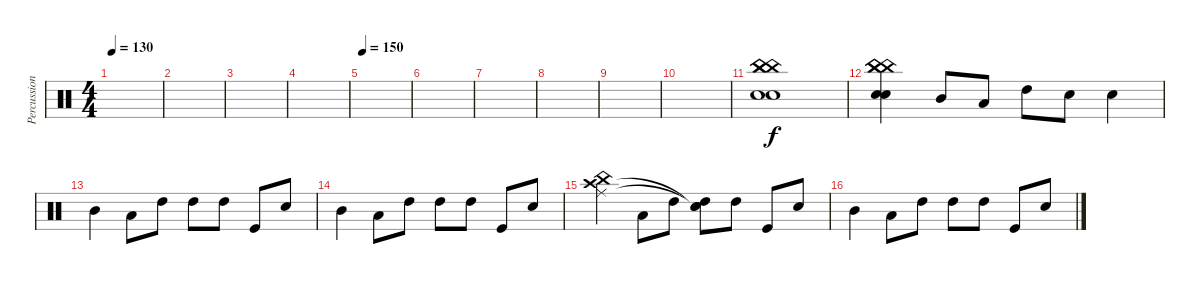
\track ("Percussion" "Percussion") {instrument percussion}
\staff {score}
\articulation defaults
\ts (4 4)
\tempo 130
\clef neutral
\ks c
|
|
|
|
\tempo 150
|
|
|
|
|
|
("Snare (hit) 2" "Snare (hit) 2" "China (hit)" "China (hit)" "China (hit)").1 |
("Snare (hit) 2" "Snare (hit) 2" "China (hit)" "China (hit)" "China (hit)").4 "Mid Tom (hit)".8 "Low Tom (hit)".8 "High Tom (hit)".8 "Snare (hit) 2".8 "Snare (hit) 2".4 |
"Mid Tom (hit)".4 "Low Tom (hit)".8 "High Tom (hit)".8 "High Tom (hit)".8 "High Tom (hit)".8 "Kick (hit)".8 "Snare (hit) 2".8 |
"Mid Tom (hit)".4 "Low Tom (hit)".8 "High Tom (hit)".8 "High Tom (hit)".8 "High Tom (hit)".8 "Kick (hit)".8 "Snare (hit) 2".8 |
("China (hit)" "Ride (middle)" "Crash high (hit)").4 "Low Tom (hit)".8 "High Tom (hit)".8 ("High Tom (hit)" "Snare (hit)"{t} "Snare (hit)"{t}).8 "High Tom (hit)".8 "Kick (hit)".8 "Snare (hit) 2".8 |
"Mid Tom (hit)".4 "Low Tom (hit)".8 "High Tom (hit)".8 "High Tom (hit)".8 "High Tom (hit)".8 "Kick (hit)".8 "Snare (hit) 2".8
